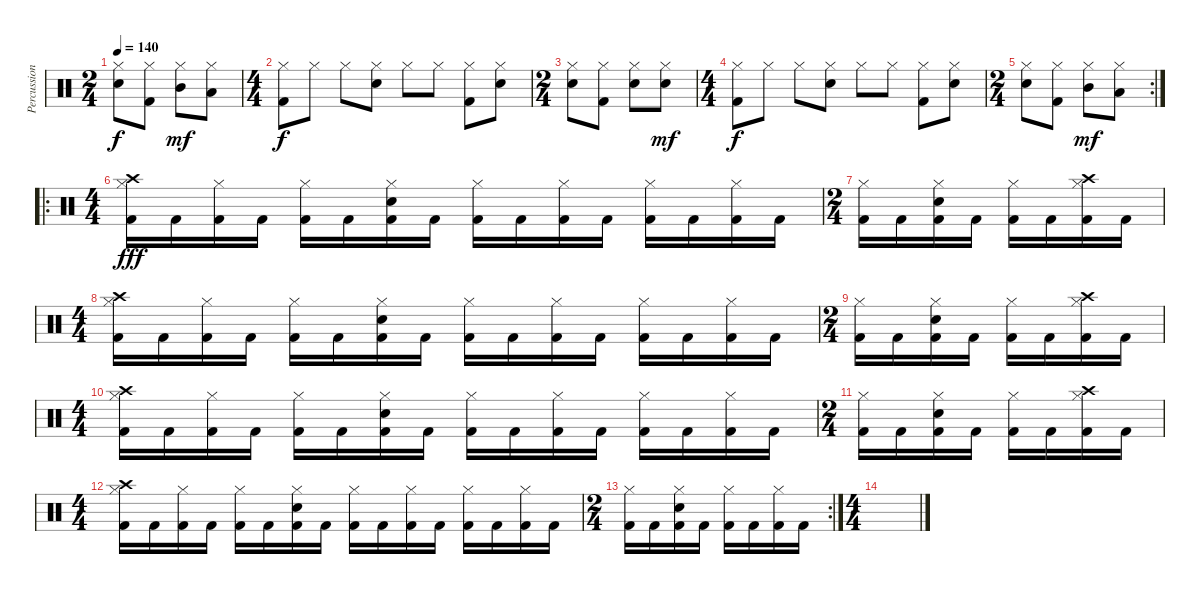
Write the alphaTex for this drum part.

\track ("Percussion" "Percussion") {instrument percussion}
\staff {score}
\articulation defaults
\ts (2 4)
\tempo 140
\clef neutral
\ks c
("Hi-Hat (closed)" "Electric Snare (hit)").8{dy f} ("Hi-Hat (closed)" "Kick (hit) 2").8 ("Hi-Hat (closed)" "Mid Tom (hit)").8{dy mf} ("Hi-Hat (closed)" "Low Tom (hit)").8 |
\ts (4 4)
("Hi-Hat (closed)" "Kick (hit) 2").8{dy f} "Hi-Hat (closed)".8 "Hi-Hat (closed)".8 ("Hi-Hat (closed)" "Electric Snare (hit)").8 "Hi-Hat (closed)".8 "Hi-Hat (closed)".8 ("Hi-Hat (closed)" "Kick (hit) 2").8 ("Hi-Hat (closed)" "Electric Snare (hit)").8 |
\ts (2 4)
("Hi-Hat (closed)" "Electric Snare (hit)").8 ("Hi-Hat (closed)" "Kick (hit) 2").8 ("Hi-Hat (closed)" "Electric Snare (hit)").8 ("Hi-Hat (closed)" "Electric Snare (hit)").8{dy mf} |
\ts (4 4)
("Hi-Hat (closed)" "Kick (hit) 2").8{dy f} "Hi-Hat (closed)".8 "Hi-Hat (closed)".8 ("Hi-Hat (closed)" "Electric Snare (hit)").8 "Hi-Hat (closed)".8 "Hi-Hat (closed)".8 ("Hi-Hat (closed)" "Kick (hit) 2").8 ("Hi-Hat (closed)" "Electric Snare (hit)").8 |
\rc 2
\ts (2 4)
("Hi-Hat (closed)" "Electric Snare (hit)").8 ("Hi-Hat (closed)" "Kick (hit) 2").8 ("Hi-Hat (closed)" "Mid Tom (hit)").8{dy mf} ("Hi-Hat (closed)" "Low Tom (hit)").8 |
\ro
\ts (4 4)
("Crash high (hit)" "Hi-Hat (closed)" "Kick (hit) 2").16{dy fff} "Kick (hit) 2".16 ("Hi-Hat (closed)" "Kick (hit) 2").16 "Kick (hit) 2".16 ("Hi-Hat (closed)" "Kick (hit) 2").16 "Kick (hit) 2".16 ("Hi-Hat (closed)" "Electric Snare (hit)" "Kick (hit) 2").16 "Kick (hit) 2".16 ("Hi-Hat (closed)" "Kick (hit) 2").16 "Kick (hit) 2".16 ("Hi-Hat (closed)" "Kick (hit) 2").16 "Kick (hit) 2".16 ("Hi-Hat (closed)" "Kick (hit) 2").16 "Kick (hit) 2".16 ("Hi-Hat (closed)" "Kick (hit) 2").16 "Kick (hit) 2".16 |
\ts (2 4)
("Hi-Hat (closed)" "Kick (hit) 2").16 "Kick (hit) 2".16 ("Hi-Hat (closed)" "Electric Snare (hit)" "Kick (hit) 2").16 "Kick (hit) 2".16 ("Hi-Hat (closed)" "Kick (hit) 2").16 "Kick (hit) 2".16 ("Crash high (hit)" "Hi-Hat (closed)" "Kick (hit) 2").16 "Kick (hit) 2".16 |
\ts (4 4)
("Crash high (hit)" "Hi-Hat (closed)" "Kick (hit) 2").16 "Kick (hit) 2".16 ("Hi-Hat (closed)" "Kick (hit) 2").16 "Kick (hit) 2".16 ("Hi-Hat (closed)" "Kick (hit) 2").16 "Kick (hit) 2".16 ("Hi-Hat (closed)" "Electric Snare (hit)" "Kick (hit) 2").16 "Kick (hit) 2".16 ("Hi-Hat (closed)" "Kick (hit) 2").16 "Kick (hit) 2".16 ("Hi-Hat (closed)" "Kick (hit) 2").16 "Kick (hit) 2".16 ("Hi-Hat (closed)" "Kick (hit) 2").16 "Kick (hit) 2".16 ("Hi-Hat (closed)" "Kick (hit) 2").16 "Kick (hit) 2".16 |
\ts (2 4)
("Hi-Hat (closed)" "Kick (hit) 2").16 "Kick (hit) 2".16 ("Hi-Hat (closed)" "Electric Snare (hit)" "Kick (hit) 2").16 "Kick (hit) 2".16 ("Hi-Hat (closed)" "Kick (hit) 2").16 "Kick (hit) 2".16 ("Crash high (hit)" "Hi-Hat (closed)" "Kick (hit) 2").16 "Kick (hit) 2".16 |
\ts (4 4)
("Crash high (hit)" "Hi-Hat (closed)" "Kick (hit) 2").16 "Kick (hit) 2".16 ("Hi-Hat (closed)" "Kick (hit) 2").16 "Kick (hit) 2".16 ("Hi-Hat (closed)" "Kick (hit) 2").16 "Kick (hit) 2".16 ("Hi-Hat (closed)" "Electric Snare (hit)" "Kick (hit) 2").16 "Kick (hit) 2".16 ("Hi-Hat (closed)" "Kick (hit) 2").16 "Kick (hit) 2".16 ("Hi-Hat (closed)" "Kick (hit) 2").16 "Kick (hit) 2".16 ("Hi-Hat (closed)" "Kick (hit) 2").16 "Kick (hit) 2".16 ("Hi-Hat (closed)" "Kick (hit) 2").16 "Kick (hit) 2".16 |
\ts (2 4)
("Hi-Hat (closed)" "Kick (hit) 2").16 "Kick (hit) 2".16 ("Hi-Hat (closed)" "Electric Snare (hit)" "Kick (hit) 2").16 "Kick (hit) 2".16 ("Hi-Hat (closed)" "Kick (hit) 2").16 "Kick (hit) 2".16 ("Crash high (hit)" "Hi-Hat (closed)" "Kick (hit) 2").16 "Kick (hit) 2".16 |
\ts (4 4)
("Crash high (hit)" "Hi-Hat (closed)" "Kick (hit) 2").16 "Kick (hit) 2".16 ("Hi-Hat (closed)" "Kick (hit) 2").16 "Kick (hit) 2".16 ("Hi-Hat (closed)" "Kick (hit) 2").16 "Kick (hit) 2".16 ("Hi-Hat (closed)" "Electric Snare (hit)" "Kick (hit) 2").16 "Kick (hit) 2".16 ("Hi-Hat (closed)" "Kick (hit) 2").16 "Kick (hit) 2".16 ("Hi-Hat (closed)" "Kick (hit) 2").16 "Kick (hit) 2".16 ("Hi-Hat (closed)" "Kick (hit) 2").16 "Kick (hit) 2".16 ("Hi-Hat (closed)" "Kick (hit) 2").16 "Kick (hit) 2".16 |
\rc 2
\ts (2 4)
("Hi-Hat (closed)" "Kick (hit) 2").16 "Kick (hit) 2".16 ("Hi-Hat (closed)" "Electric Snare (hit)" "Kick (hit) 2").16 "Kick (hit) 2".16 ("Hi-Hat (closed)" "Kick (hit) 2").16 "Kick (hit) 2".16 ("Hi-Hat (closed)" "Kick (hit) 2").16 "Kick (hit) 2".16 |
\ts (4 4)
